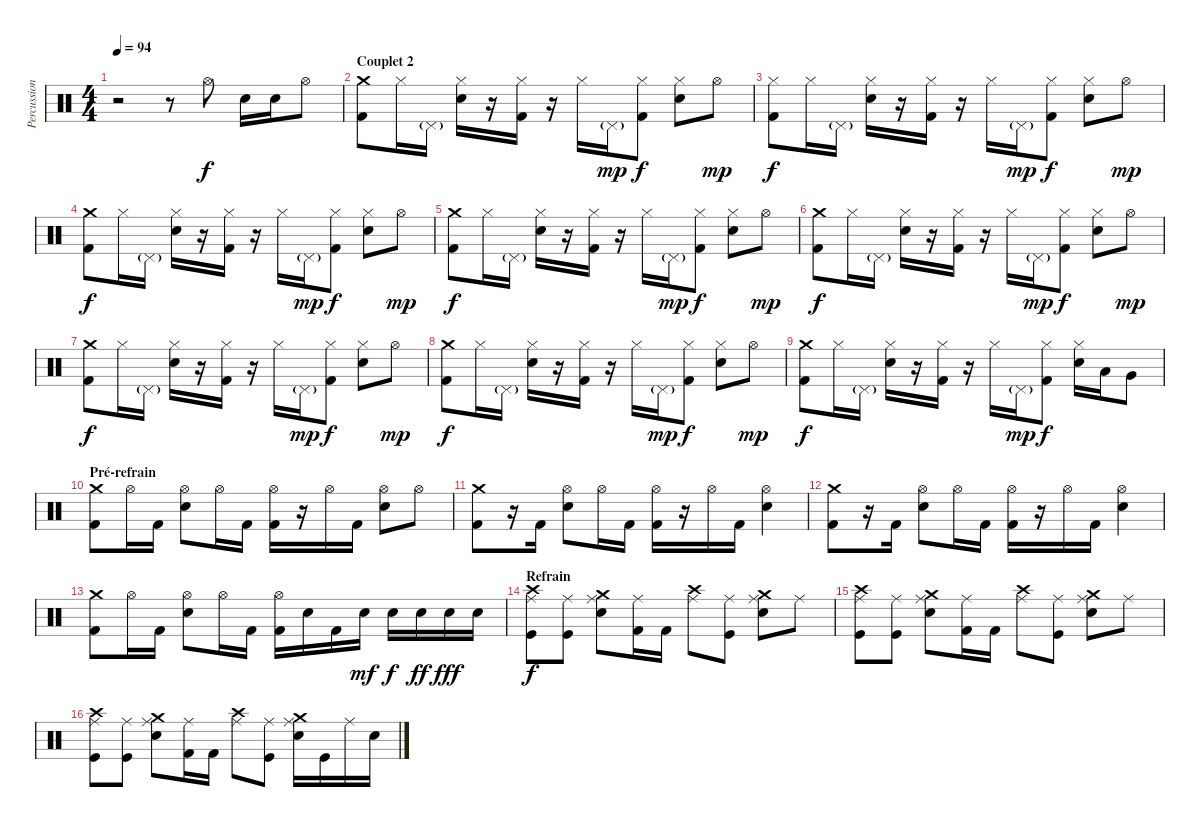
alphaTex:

\track ("Percussions" "Percussion") {instrument percussion}
\staff {score}
\articulation defaults
\ts (4 4)
\tempo 94
\clef neutral
\ks c
r.2{dy f} r.8 "Hi-Hat (open)".8 "Electric Snare (hit)".16 "Electric Snare (hit)".16 "Hi-Hat (open)".8 |
\section ("" "Couplet 2")
("Crash medium (hit)" "Kick (hit) 2").8 "Hi-Hat (closed)".16 "Pedal Hi-Hat (hit)"{g}.16 ("Hi-Hat (closed)" "Electric Snare (hit)").16 r.16 ("Hi-Hat (closed)" "Kick (hit) 2").16 r.16 "Hi-Hat (closed)".16 "Pedal Hi-Hat (hit)"{g}.16{dy mp} ("Hi-Hat (closed)" "Kick (hit) 2").8{dy f} ("Hi-Hat (closed)" "Electric Snare (hit)").8 "Hi-Hat (open)".8{dy mp} |
("Hi-Hat (closed)" "Kick (hit) 2").8{dy f} "Hi-Hat (closed)".16 "Pedal Hi-Hat (hit)"{g}.16 ("Hi-Hat (closed)" "Electric Snare (hit)").16 r.16 ("Hi-Hat (closed)" "Kick (hit) 2").16 r.16 "Hi-Hat (closed)".16 "Pedal Hi-Hat (hit)"{g}.16{dy mp} ("Hi-Hat (closed)" "Kick (hit) 2").8{dy f} ("Hi-Hat (closed)" "Electric Snare (hit)").8 "Hi-Hat (open)".8{dy mp} |
("Crash medium (hit)" "Kick (hit) 2").8{dy f} "Hi-Hat (closed)".16 "Pedal Hi-Hat (hit)"{g}.16 ("Hi-Hat (closed)" "Electric Snare (hit)").16 r.16 ("Hi-Hat (closed)" "Kick (hit) 2").16 r.16 "Hi-Hat (closed)".16 "Pedal Hi-Hat (hit)"{g}.16{dy mp} ("Hi-Hat (closed)" "Kick (hit) 2").8{dy f} ("Hi-Hat (closed)" "Electric Snare (hit)").8 "Hi-Hat (open)".8{dy mp} |
("Crash medium (hit)" "Kick (hit) 2").8{dy f} "Hi-Hat (closed)".16 "Pedal Hi-Hat (hit)"{g}.16 ("Hi-Hat (closed)" "Electric Snare (hit)").16 r.16 ("Hi-Hat (closed)" "Kick (hit) 2").16 r.16 "Hi-Hat (closed)".16 "Pedal Hi-Hat (hit)"{g}.16{dy mp} ("Hi-Hat (closed)" "Kick (hit) 2").8{dy f} ("Hi-Hat (closed)" "Electric Snare (hit)").8 "Hi-Hat (open)".8{dy mp} |
("Crash medium (hit)" "Kick (hit) 2").8{dy f} "Hi-Hat (closed)".16 "Pedal Hi-Hat (hit)"{g}.16 ("Hi-Hat (closed)" "Electric Snare (hit)").16 r.16 ("Hi-Hat (closed)" "Kick (hit) 2").16 r.16 "Hi-Hat (closed)".16 "Pedal Hi-Hat (hit)"{g}.16{dy mp} ("Hi-Hat (closed)" "Kick (hit) 2").8{dy f} ("Hi-Hat (closed)" "Electric Snare (hit)").8 "Hi-Hat (open)".8{dy mp} |
("Crash medium (hit)" "Kick (hit) 2").8{dy f} "Hi-Hat (closed)".16 "Pedal Hi-Hat (hit)"{g}.16 ("Hi-Hat (closed)" "Electric Snare (hit)").16 r.16 ("Hi-Hat (closed)" "Kick (hit) 2").16 r.16 "Hi-Hat (closed)".16 "Pedal Hi-Hat (hit)"{g}.16{dy mp} ("Hi-Hat (closed)" "Kick (hit) 2").8{dy f} ("Hi-Hat (closed)" "Electric Snare (hit)").8 "Hi-Hat (open)".8{dy mp} |
("Crash medium (hit)" "Kick (hit) 2").8{dy f} "Hi-Hat (closed)".16 "Pedal Hi-Hat (hit)"{g}.16 ("Hi-Hat (closed)" "Electric Snare (hit)").16 r.16 ("Hi-Hat (closed)" "Kick (hit) 2").16 r.16 "Hi-Hat (closed)".16 "Pedal Hi-Hat (hit)"{g}.16{dy mp} ("Hi-Hat (closed)" "Kick (hit) 2").8{dy f} ("Hi-Hat (closed)" "Electric Snare (hit)").8 "Hi-Hat (open)".8{dy mp} |
("Crash medium (hit)" "Kick (hit) 2").8{dy f} "Hi-Hat (closed)".16 "Pedal Hi-Hat (hit)"{g}.16 ("Hi-Hat (closed)" "Electric Snare (hit)").16 r.16 ("Hi-Hat (closed)" "Kick (hit) 2").16 r.16 "Hi-Hat (closed)".16 "Pedal Hi-Hat (hit)"{g}.16{dy mp} ("Hi-Hat (closed)" "Kick (hit) 2").8{dy f} ("Hi-Hat (closed)" "Electric Snare (hit)").16 "Low Tom (hit)".16 "Very Low Tom (hit)".8 |
\section ("" "Pré-refrain")
("Crash medium (hit)" "Kick (hit) 2").8 "Hi-Hat (open)".16 "Kick (hit) 2".16 ("Hi-Hat (open)" "Electric Snare (hit)").8 "Hi-Hat (open)".16 "Kick (hit) 2".16 ("Hi-Hat (open)" "Kick (hit) 2").16 r.16 "Hi-Hat (open)".16 "Kick (hit) 2".16 ("Hi-Hat (open)" "Electric Snare (hit)").8 "Hi-Hat (open)".8 |
("Crash medium (hit)" "Kick (hit) 2").8 r.16 "Kick (hit) 2".16 ("Hi-Hat (open)" "Electric Snare (hit)").8 "Hi-Hat (open)".16 "Kick (hit) 2".16 ("Hi-Hat (open)" "Kick (hit) 2").16 r.16 "Hi-Hat (open)".16 "Kick (hit) 2".16 ("Hi-Hat (open)" "Electric Snare (hit)").4 |
("Crash medium (hit)" "Kick (hit) 2").8 r.16 "Kick (hit) 2".16 ("Hi-Hat (open)" "Electric Snare (hit)").8 "Hi-Hat (open)".16 "Kick (hit) 2".16 ("Hi-Hat (open)" "Kick (hit) 2").16 r.16 "Hi-Hat (open)".16 "Kick (hit) 2".16 ("Hi-Hat (open)" "Electric Snare (hit)").4 |
("Crash medium (hit)" "Kick (hit) 2").8 "Hi-Hat (open)".16 "Kick (hit) 2".16 ("Hi-Hat (open)" "Electric Snare (hit)").8 "Hi-Hat (open)".16 "Kick (hit) 2".16 ("Hi-Hat (open)" "Kick (hit) 2").16 "Electric Snare (hit)".16 "Kick (hit) 2".16 "Electric Snare (hit)".16{dy mf} "Electric Snare (hit)".16{dy f} "Electric Snare (hit)".16{dy ff} "Electric Snare (hit)".16{dy fff} "Electric Snare (hit)".16 |
\section ("" "Refrain")
("Crash high (hit)" "Ride (middle)" "Kick (hit)").8{dy f volume 16} ("Ride (middle)" "Kick (hit)").8 ("Crash medium (hit)" "Ride (middle)" "Electric Snare (hit)").8 ("Ride (middle)" "Kick (hit) 2").16 "Kick (hit) 2".16 ("Crash high (hit)" "Ride (middle)").8 ("Ride (middle)" "Kick (hit)").8 ("Crash medium (hit)" "Ride (middle)" "Electric Snare (hit)").8 "Ride (middle)".8 |
("Crash high (hit)" "Ride (middle)" "Kick (hit)").8 ("Ride (middle)" "Kick (hit)").8 ("Crash medium (hit)" "Ride (middle)" "Electric Snare (hit)").8 ("Ride (middle)" "Kick (hit) 2").16 "Kick (hit) 2".16 ("Crash high (hit)" "Ride (middle)").8 ("Ride (middle)" "Kick (hit)").8 ("Crash medium (hit)" "Ride (middle)" "Electric Snare (hit)").8 "Ride (middle)".8 |
("Crash high (hit)" "Ride (middle)" "Kick (hit)").8 ("Ride (middle)" "Kick (hit)").8 ("Crash medium (hit)" "Ride (middle)" "Electric Snare (hit)").8 ("Ride (middle)" "Kick (hit) 2").16 "Kick (hit) 2".16 ("Crash high (hit)" "Ride (middle)").8 ("Ride (middle)" "Kick (hit)").8 ("Crash medium (hit)" "Ride (middle)" "Electric Snare (hit)").16 "Kick (hit)".16 "Ride (middle)".16 "Electric Snare (hit)".16
